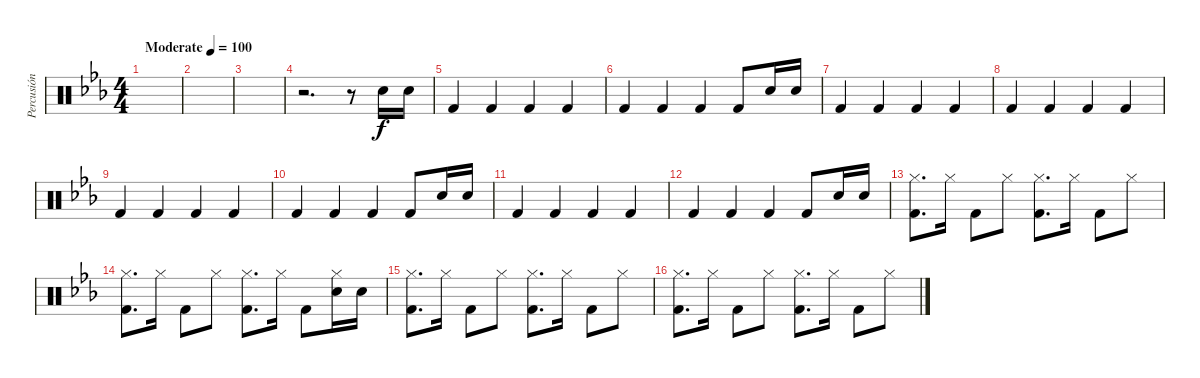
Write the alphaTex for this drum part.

\track ("Percusión" "Percusión") {instrument percussion}
\staff {score}
\articulation defaults
\ts (4 4)
\tempo (100 "Moderate")
\clef neutral
\ks eb
|
|
|
r.2{d} r.8 "Electric Snare (hit)".16 "Electric Snare (hit)".16 |
"Kick (hit) 2".4 "Kick (hit) 2".4 "Kick (hit) 2".4 "Kick (hit) 2".4 |
"Kick (hit) 2".4 "Kick (hit) 2".4 "Kick (hit) 2".4 "Kick (hit) 2".8 "Electric Snare (hit)".16 "Electric Snare (hit)".16 |
"Kick (hit) 2".4 "Kick (hit) 2".4 "Kick (hit) 2".4 "Kick (hit) 2".4 |
"Kick (hit) 2".4 "Kick (hit) 2".4 "Kick (hit) 2".4 "Kick (hit) 2".4 |
"Kick (hit) 2".4 "Kick (hit) 2".4 "Kick (hit) 2".4 "Kick (hit) 2".4 |
"Kick (hit) 2".4 "Kick (hit) 2".4 "Kick (hit) 2".4 "Kick (hit) 2".8 "Electric Snare (hit)".16 "Electric Snare (hit)".16 |
"Kick (hit) 2".4 "Kick (hit) 2".4 "Kick (hit) 2".4 "Kick (hit) 2".4 |
"Kick (hit) 2".4 "Kick (hit) 2".4 "Kick (hit) 2".4 "Kick (hit) 2".8 "Electric Snare (hit)".16 "Electric Snare (hit)".16 |
("Hi-Hat (closed)" "Kick (hit) 2").8{d} "Hi-Hat (closed)".16 "Kick (hit) 2".8 "Hi-Hat (closed)".8 ("Hi-Hat (closed)" "Kick (hit) 2").8{d} "Hi-Hat (closed)".16 "Kick (hit) 2".8 "Hi-Hat (closed)".8 |
("Hi-Hat (closed)" "Kick (hit) 2").8{d} "Hi-Hat (closed)".16 "Kick (hit) 2".8 "Hi-Hat (closed)".8 ("Hi-Hat (closed)" "Kick (hit) 2").8{d} "Hi-Hat (closed)".16 "Kick (hit) 2".8 ("Hi-Hat (closed)" "Electric Snare (hit)").16 "Electric Snare (hit)".16 |
("Hi-Hat (closed)" "Kick (hit) 2").8{d} "Hi-Hat (closed)".16 "Kick (hit) 2".8 "Hi-Hat (closed)".8 ("Hi-Hat (closed)" "Kick (hit) 2").8{d} "Hi-Hat (closed)".16 "Kick (hit) 2".8 "Hi-Hat (closed)".8 |
("Hi-Hat (closed)" "Kick (hit) 2").8{d} "Hi-Hat (closed)".16 "Kick (hit) 2".8 "Hi-Hat (closed)".8 ("Hi-Hat (closed)" "Kick (hit) 2").8{d} "Hi-Hat (closed)".16 "Kick (hit) 2".8 "Hi-Hat (closed)".8
